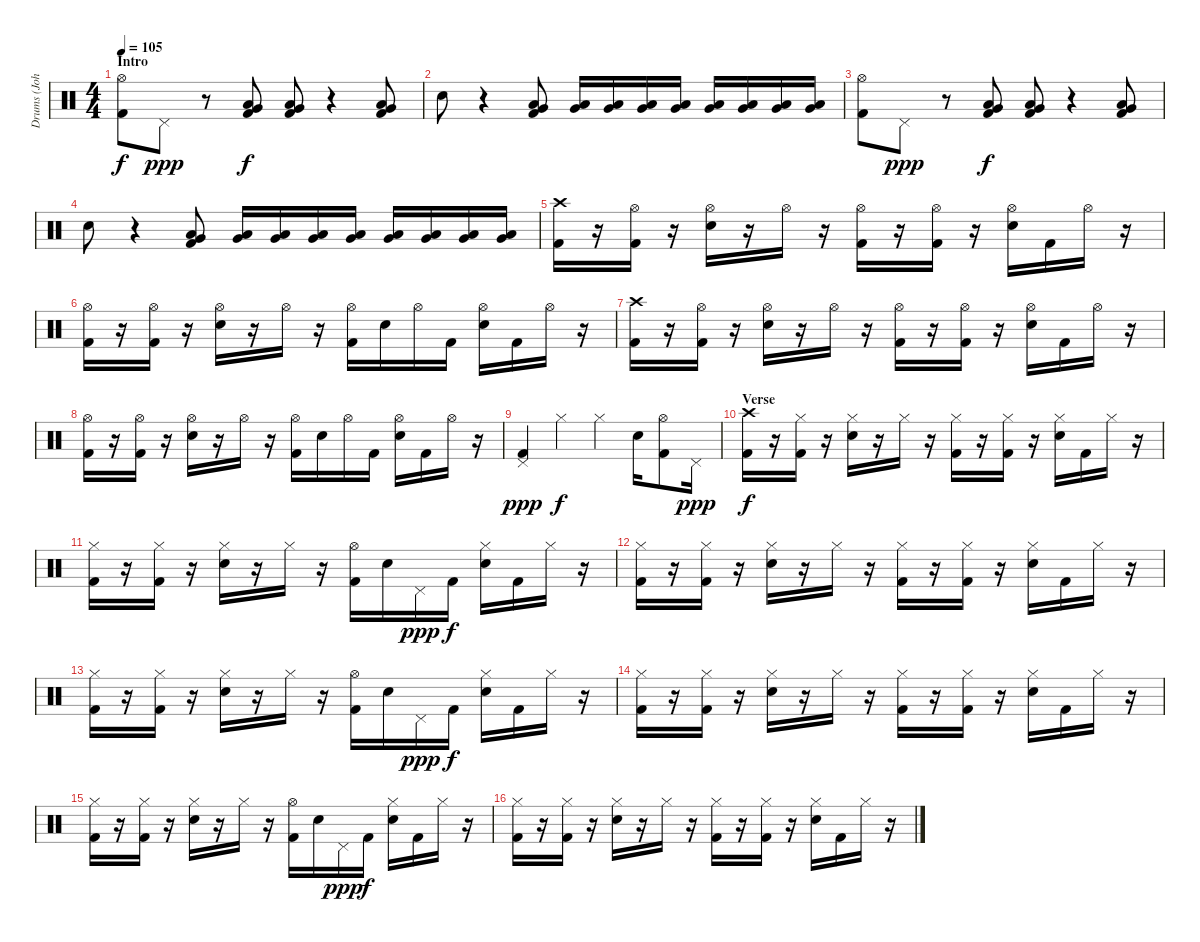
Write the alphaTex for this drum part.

\track ("Drums (John Otto)" "Drums (Joh") {instrument percussion}
\staff {score}
\articulation defaults
\ts (4 4)
\section ("" "Intro")
\tempo 105
\clef neutral
\ks c
("Hi-Hat (open)" "Kick (hit) 2").8{dy f} "Pedal Hi-Hat (hit)".8{dy ppp} r.8 ("Very Low Tom (hit)" "Low Tom (hit)" "Kick (hit) 2").8{dy f} ("Very Low Tom (hit)" "Low Tom (hit)" "Kick (hit) 2").8 r.4 ("Very Low Tom (hit)" "Low Tom (hit)" "Kick (hit) 2").8 |
"Electric Snare (hit)".8 r.4 ("Very Low Tom (hit)" "Low Tom (hit)" "Kick (hit) 2").8 ("Low Tom (hit)" "Very Low Tom (hit)").16 ("Low Tom (hit)" "Very Low Tom (hit)").16 ("Low Tom (hit)" "Very Low Tom (hit)").16 ("Low Tom (hit)" "Very Low Tom (hit)").16 ("Low Tom (hit)" "Very Low Tom (hit)").16 ("Low Tom (hit)" "Very Low Tom (hit)").16 ("Low Tom (hit)" "Very Low Tom (hit)").16 ("Low Tom (hit)" "Very Low Tom (hit)").16 |
("Hi-Hat (open)" "Kick (hit) 2").8 "Pedal Hi-Hat (hit)".8{dy ppp} r.8 ("Very Low Tom (hit)" "Low Tom (hit)" "Kick (hit) 2").8{dy f} ("Very Low Tom (hit)" "Low Tom (hit)" "Kick (hit) 2").8 r.4 ("Very Low Tom (hit)" "Low Tom (hit)" "Kick (hit) 2").8 |
"Electric Snare (hit)".8 r.4 ("Very Low Tom (hit)" "Low Tom (hit)" "Kick (hit) 2").8 ("Low Tom (hit)" "Very Low Tom (hit)").16 ("Low Tom (hit)" "Very Low Tom (hit)").16 ("Low Tom (hit)" "Very Low Tom (hit)").16 ("Low Tom (hit)" "Very Low Tom (hit)").16 ("Low Tom (hit)" "Very Low Tom (hit)").16 ("Low Tom (hit)" "Very Low Tom (hit)").16 ("Low Tom (hit)" "Very Low Tom (hit)").16 ("Low Tom (hit)" "Very Low Tom (hit)").16 |
("Crash high (hit)" "Kick (hit) 2").16 r.16 ("Hi-Hat (open)" "Kick (hit) 2").16 r.16 ("Hi-Hat (open)" "Electric Snare (hit)").16 r.16 "Hi-Hat (open)".16 r.16 ("Hi-Hat (open)" "Kick (hit) 2").16 r.16 ("Hi-Hat (open)" "Kick (hit) 2").16 r.16 ("Hi-Hat (open)" "Electric Snare (hit)").16 "Kick (hit) 2".16 "Hi-Hat (open)".16 r.16 |
("Hi-Hat (open)" "Kick (hit) 2").16 r.16 ("Hi-Hat (open)" "Kick (hit) 2").16 r.16 ("Hi-Hat (open)" "Electric Snare (hit)").16 r.16 "Hi-Hat (open)".16 r.16 ("Hi-Hat (open)" "Kick (hit) 2").16 "Electric Snare (hit)".16 "Hi-Hat (open)".16 "Kick (hit) 2".16 ("Hi-Hat (open)" "Electric Snare (hit)").16 "Kick (hit) 2".16 "Hi-Hat (open)".16 r.16 |
("Crash high (hit)" "Kick (hit) 2").16 r.16 ("Hi-Hat (open)" "Kick (hit) 2").16 r.16 ("Hi-Hat (open)" "Electric Snare (hit)").16 r.16 "Hi-Hat (open)".16 r.16 ("Hi-Hat (open)" "Kick (hit) 2").16 r.16 ("Hi-Hat (open)" "Kick (hit) 2").16 r.16 ("Hi-Hat (open)" "Electric Snare (hit)").16 "Kick (hit) 2".16 "Hi-Hat (open)".16 r.16 |
("Hi-Hat (open)" "Kick (hit) 2").16 r.16 ("Hi-Hat (open)" "Kick (hit) 2").16 r.16 ("Hi-Hat (open)" "Electric Snare (hit)").16 r.16 "Hi-Hat (open)".16 r.16 ("Hi-Hat (open)" "Kick (hit) 2").16 "Electric Snare (hit)".16 "Hi-Hat (open)".16 "Kick (hit) 2".16 ("Hi-Hat (open)" "Electric Snare (hit)").16 "Kick (hit) 2".16 "Hi-Hat (open)".16 r.16 |
("Pedal Hi-Hat (hit)" "Kick (hit) 2").4{dy ppp} "Hi-Hat (closed)".4{dy f} "Hi-Hat (closed)".4 "Electric Snare (hit)".16 ("Hi-Hat (open)" "Kick (hit) 2").8 "Pedal Hi-Hat (hit)".16{dy ppp} |
\section ("" "Verse")
("Crash high (hit)" "Kick (hit) 2").16{dy f} r.16 ("Hi-Hat (closed)" "Kick (hit) 2").16 r.16 ("Hi-Hat (closed)" "Electric Snare (hit)").16 r.16 "Hi-Hat (closed)".16 r.16 ("Hi-Hat (closed)" "Kick (hit) 2").16 r.16 ("Hi-Hat (closed)" "Kick (hit) 2").16 r.16 ("Hi-Hat (closed)" "Electric Snare (hit)").16 "Kick (hit) 2".16 "Hi-Hat (closed)".16 r.16 |
("Hi-Hat (closed)" "Kick (hit) 2").16 r.16 ("Hi-Hat (closed)" "Kick (hit) 2").16 r.16 ("Hi-Hat (closed)" "Electric Snare (hit)").16 r.16 "Hi-Hat (closed)".16 r.16 ("Hi-Hat (open)" "Kick (hit) 2").16 "Electric Snare (hit)".16 "Pedal Hi-Hat (hit)".16{dy ppp} "Kick (hit) 2".16{dy f} ("Hi-Hat (closed)" "Electric Snare (hit)").16 "Kick (hit) 2".16 "Hi-Hat (closed)".16 r.16 |
("Hi-Hat (closed)" "Kick (hit) 2").16 r.16 ("Hi-Hat (closed)" "Kick (hit) 2").16 r.16 ("Hi-Hat (closed)" "Electric Snare (hit)").16 r.16 "Hi-Hat (closed)".16 r.16 ("Hi-Hat (closed)" "Kick (hit) 2").16 r.16 ("Hi-Hat (closed)" "Kick (hit) 2").16 r.16 ("Hi-Hat (closed)" "Electric Snare (hit)").16 "Kick (hit) 2".16 "Hi-Hat (closed)".16 r.16 |
("Hi-Hat (closed)" "Kick (hit) 2").16 r.16 ("Hi-Hat (closed)" "Kick (hit) 2").16 r.16 ("Hi-Hat (closed)" "Electric Snare (hit)").16 r.16 "Hi-Hat (closed)".16 r.16 ("Hi-Hat (open)" "Kick (hit) 2").16 "Electric Snare (hit)".16 "Pedal Hi-Hat (hit)".16{dy ppp} "Kick (hit) 2".16{dy f} ("Hi-Hat (closed)" "Electric Snare (hit)").16 "Kick (hit) 2".16 "Hi-Hat (closed)".16 r.16 |
("Hi-Hat (closed)" "Kick (hit) 2").16 r.16 ("Hi-Hat (closed)" "Kick (hit) 2").16 r.16 ("Hi-Hat (closed)" "Electric Snare (hit)").16 r.16 "Hi-Hat (closed)".16 r.16 ("Hi-Hat (closed)" "Kick (hit) 2").16 r.16 ("Hi-Hat (closed)" "Kick (hit) 2").16 r.16 ("Hi-Hat (closed)" "Electric Snare (hit)").16 "Kick (hit) 2".16 "Hi-Hat (closed)".16 r.16 |
("Hi-Hat (closed)" "Kick (hit) 2").16 r.16 ("Hi-Hat (closed)" "Kick (hit) 2").16 r.16 ("Hi-Hat (closed)" "Electric Snare (hit)").16 r.16 "Hi-Hat (closed)".16 r.16 ("Hi-Hat (open)" "Kick (hit) 2").16 "Electric Snare (hit)".16 "Pedal Hi-Hat (hit)".16{dy ppp} "Kick (hit) 2".16{dy f} ("Hi-Hat (closed)" "Electric Snare (hit)").16 "Kick (hit) 2".16 "Hi-Hat (closed)".16 r.16 |
("Hi-Hat (closed)" "Kick (hit) 2").16 r.16 ("Hi-Hat (closed)" "Kick (hit) 2").16 r.16 ("Hi-Hat (closed)" "Electric Snare (hit)").16 r.16 "Hi-Hat (closed)".16 r.16 ("Hi-Hat (closed)" "Kick (hit) 2").16 r.16 ("Hi-Hat (closed)" "Kick (hit) 2").16 r.16 ("Hi-Hat (closed)" "Electric Snare (hit)").16 "Kick (hit) 2".16 "Hi-Hat (closed)".16 r.16
